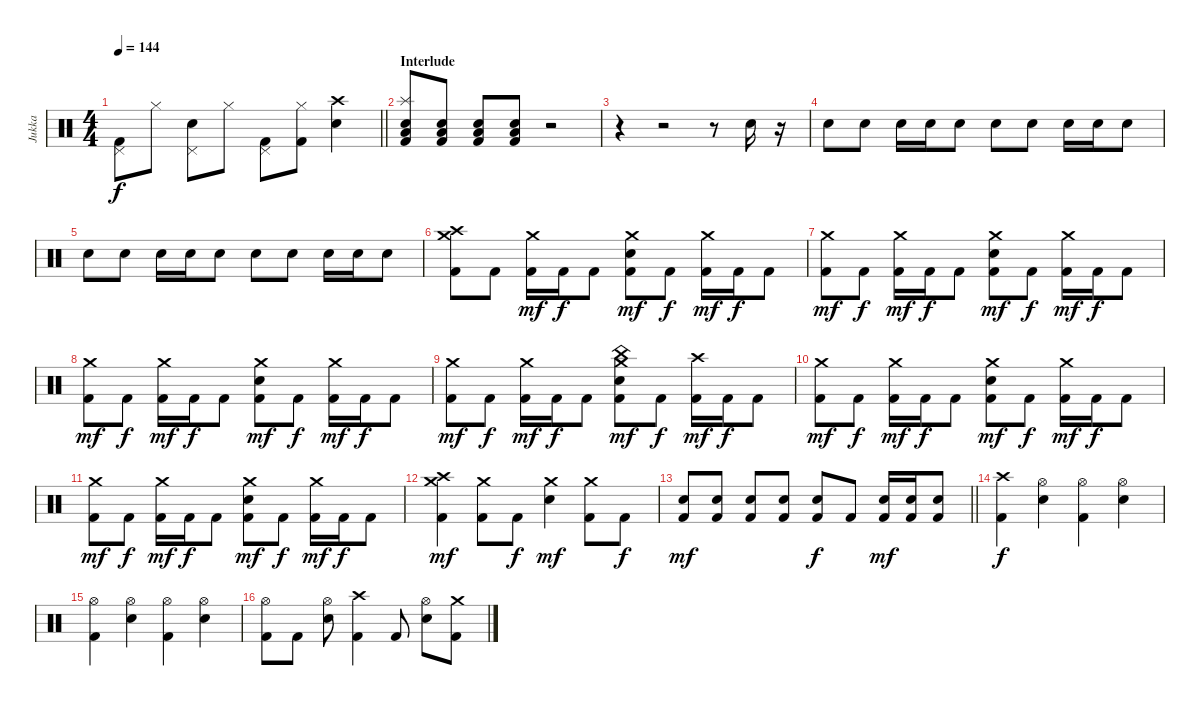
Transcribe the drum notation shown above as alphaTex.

\track ("Jukka" "Jukka") {instrument percussion}
\staff {score}
\articulation defaults
\ts (4 4)
\tempo 144
\clef neutral
\barLineRight lightlight
\ks c
("Pedal Hi-Hat (hit)" "Kick (hit) 2").8{dy f} "Hi-Hat (closed)".8 ("Pedal Hi-Hat (hit)" "Electric Snare (hit)").8 "Hi-Hat (closed)".8 ("Pedal Hi-Hat (hit)" "Kick (hit) 2").8 ("Hi-Hat (closed)" "Kick (hit) 2").8 ("Crash high (hit)" "Electric Snare (hit)").4 |
\section ("" "Interlude")
("Splash (hit)" "Low Floor Tom (hit)" "Electric Snare (hit)" "Kick (hit) 2").8 ("Low Floor Tom (hit)" "Electric Snare (hit)" "Kick (hit) 2").8 ("Low Floor Tom (hit)" "Electric Snare (hit)" "Kick (hit) 2").8 ("Low Floor Tom (hit)" "Electric Snare (hit)" "Kick (hit) 2").8 r.2 |
r.4 r.2 r.8 "Electric Snare (hit)".16 r.16 |
"Electric Snare (hit)".8 "Electric Snare (hit)".8 "Electric Snare (hit)".16 "Electric Snare (hit)".16 "Electric Snare (hit)".8 "Electric Snare (hit)".8 "Electric Snare (hit)".8 "Electric Snare (hit)".16 "Electric Snare (hit)".16 "Electric Snare (hit)".8 |
"Electric Snare (hit)".8 "Electric Snare (hit)".8 "Electric Snare (hit)".16 "Electric Snare (hit)".16 "Electric Snare (hit)".8 "Electric Snare (hit)".8 "Electric Snare (hit)".8 "Electric Snare (hit)".16 "Electric Snare (hit)".16 "Electric Snare (hit)".8 |
("Crash medium (hit)" "Crash high (hit)" "Kick (hit) 2").8 "Kick (hit) 2".8 ("Crash medium (hit)" "Kick (hit) 2").16{dy mf} "Kick (hit) 2".16{dy f} "Kick (hit) 2".8 ("Crash medium (hit)" "Electric Snare (hit)" "Kick (hit) 2").8{dy mf} "Kick (hit) 2".8{dy f} ("Crash medium (hit)" "Kick (hit) 2").16{dy mf} "Kick (hit) 2".16{dy f} "Kick (hit) 2".8 |
("Crash medium (hit)" "Kick (hit) 2").8{dy mf} "Kick (hit) 2".8{dy f} ("Crash medium (hit)" "Kick (hit) 2").16{dy mf} "Kick (hit) 2".16{dy f} "Kick (hit) 2".8 ("Crash medium (hit)" "Electric Snare (hit)" "Kick (hit) 2").8{dy mf} "Kick (hit) 2".8{dy f} ("Crash medium (hit)" "Kick (hit) 2").16{dy mf} "Kick (hit) 2".16{dy f} "Kick (hit) 2".8 |
("Crash medium (hit)" "Kick (hit) 2").8{dy mf} "Kick (hit) 2".8{dy f} ("Crash medium (hit)" "Kick (hit) 2").16{dy mf} "Kick (hit) 2".16{dy f} "Kick (hit) 2".8 ("Crash medium (hit)" "Electric Snare (hit)" "Kick (hit) 2").8{dy mf} "Kick (hit) 2".8{dy f} ("Crash medium (hit)" "Kick (hit) 2").16{dy mf} "Kick (hit) 2".16{dy f} "Kick (hit) 2".8 |
("Crash medium (hit)" "Kick (hit) 2").8{dy mf} "Kick (hit) 2".8{dy f} ("Crash medium (hit)" "Kick (hit) 2").16{dy mf} "Kick (hit) 2".16{dy f} "Kick (hit) 2".8 ("Crash medium (hit)" "China (hit)" "Electric Snare (hit)" "Kick (hit) 2").8{dy mf} "Kick (hit) 2".8{dy f} ("Crash high (hit)" "Kick (hit) 2").16{dy mf} "Kick (hit) 2".16{dy f} "Kick (hit) 2".8 |
("Crash medium (hit)" "Kick (hit) 2").8{dy mf} "Kick (hit) 2".8{dy f} ("Crash medium (hit)" "Kick (hit) 2").16{dy mf} "Kick (hit) 2".16{dy f} "Kick (hit) 2".8 ("Crash medium (hit)" "Electric Snare (hit)" "Kick (hit) 2").8{dy mf} "Kick (hit) 2".8{dy f} ("Crash medium (hit)" "Kick (hit) 2").16{dy mf} "Kick (hit) 2".16{dy f} "Kick (hit) 2".8 |
("Crash medium (hit)" "Kick (hit) 2").8{dy mf} "Kick (hit) 2".8{dy f} ("Crash medium (hit)" "Kick (hit) 2").16{dy mf} "Kick (hit) 2".16{dy f} "Kick (hit) 2".8 ("Crash medium (hit)" "Electric Snare (hit)" "Kick (hit) 2").8{dy mf} "Kick (hit) 2".8{dy f} ("Crash medium (hit)" "Kick (hit) 2").16{dy mf} "Kick (hit) 2".16{dy f} "Kick (hit) 2".8 |
("Crash medium (hit)" "Crash high (hit)" "Kick (hit) 2").4{dy mf} ("Crash medium (hit)" "Kick (hit) 2").8 "Kick (hit) 2".8{dy f} ("Crash medium (hit)" "Electric Snare (hit)").4{dy mf} ("Crash medium (hit)" "Kick (hit) 2").8 "Kick (hit) 2".8{dy f} |
\barLineRight lightlight
("Electric Snare (hit)" "Kick (hit) 2").8{dy mf} ("Electric Snare (hit)" "Kick (hit) 2").8 ("Electric Snare (hit)" "Kick (hit) 2").8 ("Electric Snare (hit)" "Kick (hit) 2").8 ("Electric Snare (hit)" "Kick (hit) 2").8{dy f} "Kick (hit) 2".8 ("Electric Snare (hit)" "Kick (hit) 2").16{dy mf} ("Electric Snare (hit)" "Kick (hit) 2").16 ("Electric Snare (hit)" "Kick (hit) 2").8 |
("Crash high (hit)" "Kick (hit) 2").4{dy f} ("Hi-Hat (open)" "Electric Snare (hit)").4 ("Hi-Hat (open)" "Kick (hit) 2").4 ("Hi-Hat (open)" "Electric Snare (hit)").4 |
("Hi-Hat (open)" "Kick (hit) 2").4 ("Hi-Hat (open)" "Electric Snare (hit)").4 ("Hi-Hat (open)" "Kick (hit) 2").4 ("Hi-Hat (open)" "Electric Snare (hit)").4 |
("Hi-Hat (open)" "Kick (hit) 2").8 "Kick (hit) 2".8 ("Hi-Hat (open)" "Electric Snare (hit)").8 ("Crash high (hit)" "Kick (hit) 2").4 "Kick (hit) 2".8 ("Hi-Hat (open)" "Electric Snare (hit)").8 ("Crash medium (hit)" "Kick (hit) 2").8
